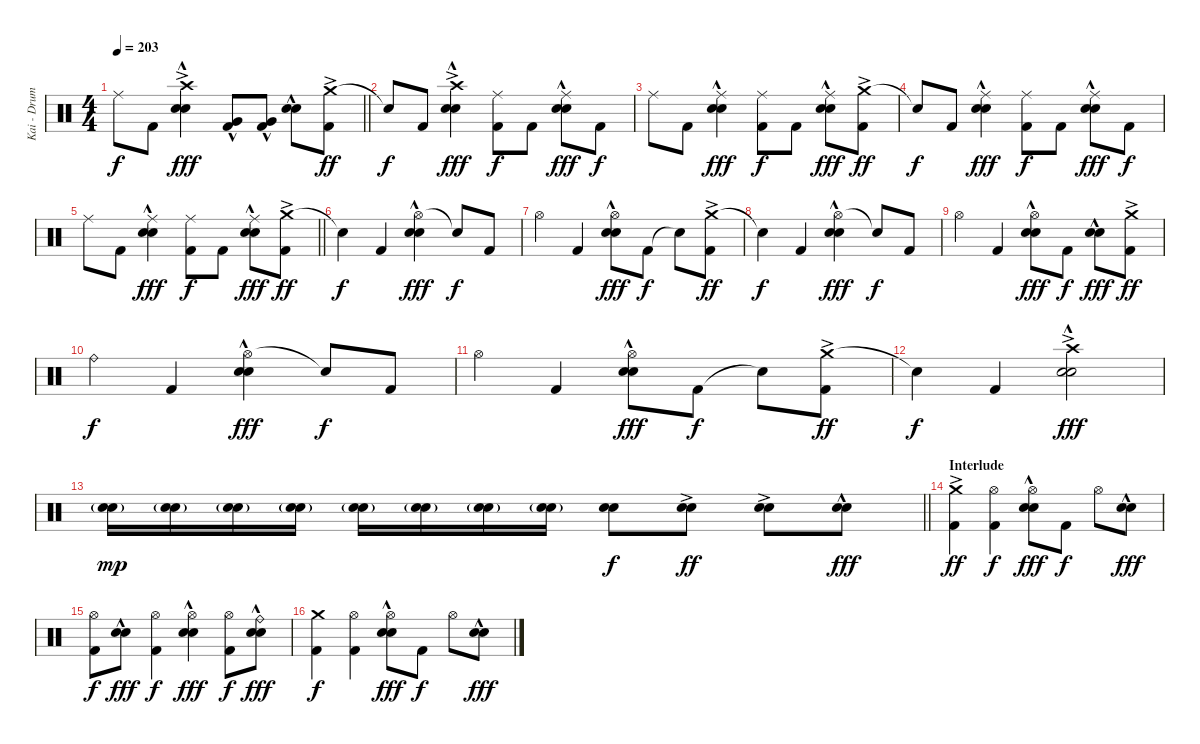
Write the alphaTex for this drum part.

\track ("Kai - Drums" "Kai - Drum") {instrument percussion}
\staff {score}
\articulation defaults
\ts (4 4)
\tempo 203
\clef neutral
\barLineRight lightlight
\ks c "Ride (middle)".8{dy f} "Kick (hit) 2".8
("Crash high (hit)"{ac} "Electric Snare (hit)"{hac} "Snare (hit) 2"{hac}).4{dy fff} ("Very Low Tom (hit)"{hac} "Kick (hit) 2").8 ("Very Low Tom (hit)"{hac} "Kick (hit) 2").8 ("Electric Snare (hit)"{hac} "Snare (hit) 2"{hac}).8 ("Crash medium (hit)"{ac} "Kick (hit) 2").8{dy ff} |
\section ("" "")
"Snare (hit)"{t}.8{dy f} "Kick (hit) 2".8 ("Crash high (hit)"{ac} "Electric Snare (hit)"{hac} "Snare (hit) 2"{hac}).4{dy fff} ("Ride (middle)" "Kick (hit) 2").8{dy f} "Kick (hit) 2".8 ("Ride (middle)" "Electric Snare (hit)"{hac} "Snare (hit) 2"{hac}).8{dy fff} "Kick (hit) 2".8{dy f} |
"Ride (middle)".8 "Kick (hit) 2".8 ("Ride (middle)" "Electric Snare (hit)"{hac} "Snare (hit) 2"{hac}).4{dy fff} ("Ride (middle)" "Kick (hit) 2").8{dy f} "Kick (hit) 2".8 ("Ride (middle)" "Electric Snare (hit)"{hac} "Snare (hit) 2"{hac}).8{dy fff} ("Crash medium (hit)"{ac} "Kick (hit) 2").8{dy ff} |
"Snare (hit)"{t}.8{dy f} "Kick (hit) 2".8 ("Ride (middle)" "Electric Snare (hit)"{hac} "Snare (hit) 2"{hac}).4{dy fff} ("Ride (middle)" "Kick (hit) 2").8{dy f} "Kick (hit) 2".8 ("Ride (middle)" "Electric Snare (hit)"{hac} "Snare (hit) 2"{hac}).8{dy fff} "Kick (hit) 2".8{dy f} |
\barLineRight lightlight "Ride (middle)".8 "Kick (hit) 2".8
("Ride (middle)" "Electric Snare (hit)"{hac} "Snare (hit) 2"{hac}).4{dy fff} ("Ride (middle)" "Kick (hit) 2").8{dy f} "Kick (hit) 2".8 ("Ride (middle)" "Electric Snare (hit)"{hac} "Snare (hit) 2"{hac}).8{dy fff} ("Crash medium (hit)"{ac} "Kick (hit) 2").8{dy ff} |
"Snare (hit)"{t}.4{dy f} "Kick (hit) 2".4 ("Hi-Hat (open)" "Electric Snare (hit)"{hac} "Snare (hit) 2"{hac}).4{dy fff} "Snare (hit)"{t}.8{dy f} "Kick (hit) 2".8 |
"Hi-Hat (open)".4 "Kick (hit) 2".4 ("Hi-Hat (open)" "Electric Snare (hit)"{hac} "Snare (hit) 2"{hac}).8{dy fff} "Kick (hit) 2".8{dy f} "Snare (hit)"{t}.8 ("Crash medium (hit)"{ac} "Kick (hit) 2").8{dy ff} |
"Snare (hit)"{t}.4{dy f} "Kick (hit) 2".4 ("Hi-Hat (open)" "Electric Snare (hit)"{hac} "Snare (hit) 2"{hac}).4{dy fff} "Snare (hit)"{t}.8{dy f} "Kick (hit) 2".8 |
"Hi-Hat (open)".4 "Kick (hit) 2".4 ("Hi-Hat (open)" "Electric Snare (hit)"{hac} "Snare (hit) 2"{hac}).8{dy fff} "Kick (hit) 2".8{dy f} ("Electric Snare (hit)"{hac} "Snare (hit) 2"{hac}).8{dy fff} ("Crash medium (hit)"{ac} "Kick (hit) 2").8{dy ff} |
"Ride (bell)".4{dy f} "Kick (hit) 2".4 ("Hi-Hat (open)" "Electric Snare (hit)"{hac} "Snare (hit) 2"{hac}).4{dy fff} "Snare (hit)"{t}.8{dy f} "Kick (hit) 2".8 |
"Hi-Hat (open)".4 "Kick (hit) 2".4 ("Hi-Hat (open)" "Electric Snare (hit)"{hac} "Snare (hit) 2"{hac}).8{dy fff} "Kick (hit) 2".8{dy f} "Snare (hit)"{t}.8 ("Crash medium (hit)"{ac} "Kick (hit) 2").8{dy ff} |
"Snare (hit)"{t}.4{dy f} "Kick (hit) 2".4 ("Crash high (hit)"{ac} "Electric Snare (hit)"{hac} "Snare (hit) 2"{hac}).2{dy fff} |
\barLineRight lightlight
("Electric Snare (hit)"{g} "Snare (hit) 2"{g}).16{dy mp} ("Electric Snare (hit)"{g} "Snare (hit) 2"{g}).16 ("Electric Snare (hit)"{g} "Snare (hit) 2"{g}).16 ("Electric Snare (hit)"{g} "Snare (hit) 2"{g}).16 ("Electric Snare (hit)"{g} "Snare (hit) 2"{g}).16 ("Electric Snare (hit)"{g} "Snare (hit) 2").16 ("Electric Snare (hit)"{g} "Snare (hit) 2").16 ("Electric Snare (hit)"{g} "Snare (hit) 2").16 ("Electric Snare (hit)" "Snare (hit) 2").8{dy f} ("Electric Snare (hit)"{ac} "Snare (hit) 2"{ac}).8{dy ff} ("Electric Snare (hit)"{ac} "Snare (hit) 2"{ac}).8 ("Electric Snare (hit)"{hac} "Snare (hit) 2"{hac}).8{dy fff} |
\section ("" "Interlude")
("Crash medium (hit)"{ac} "Kick (hit) 2").4{dy ff} ("Hi-Hat (open)" "Kick (hit) 2").4{dy f} ("Hi-Hat (open)" "Electric Snare (hit)"{hac} "Snare (hit) 2"{hac}).8{dy fff} "Kick (hit) 2".8{dy f} "Hi-Hat (open)".8 ("Electric Snare (hit)"{hac} "Snare (hit) 2"{hac}).8{dy fff} |
("Hi-Hat (open)" "Kick (hit) 2").8{dy f} ("Electric Snare (hit)"{hac} "Snare (hit) 2"{hac}).8{dy fff} ("Hi-Hat (open)" "Kick (hit) 2").4{dy f} ("Hi-Hat (open)" "Electric Snare (hit)"{hac} "Snare (hit) 2"{hac}).4{dy fff} ("Hi-Hat (open)" "Kick (hit) 2").8{dy f} ("Ride (bell)" "Electric Snare (hit)"{hac} "Snare (hit) 2"{hac}).8{dy fff} |
("Crash medium (hit)" "Kick (hit) 2").4{dy f} ("Hi-Hat (open)" "Kick (hit) 2").4 ("Hi-Hat (open)" "Electric Snare (hit)"{hac} "Snare (hit) 2"{hac}).8{dy fff} "Kick (hit) 2".8{dy f} "Hi-Hat (open)".8 ("Electric Snare (hit)"{hac} "Snare (hit) 2"{hac}).8{dy fff}
